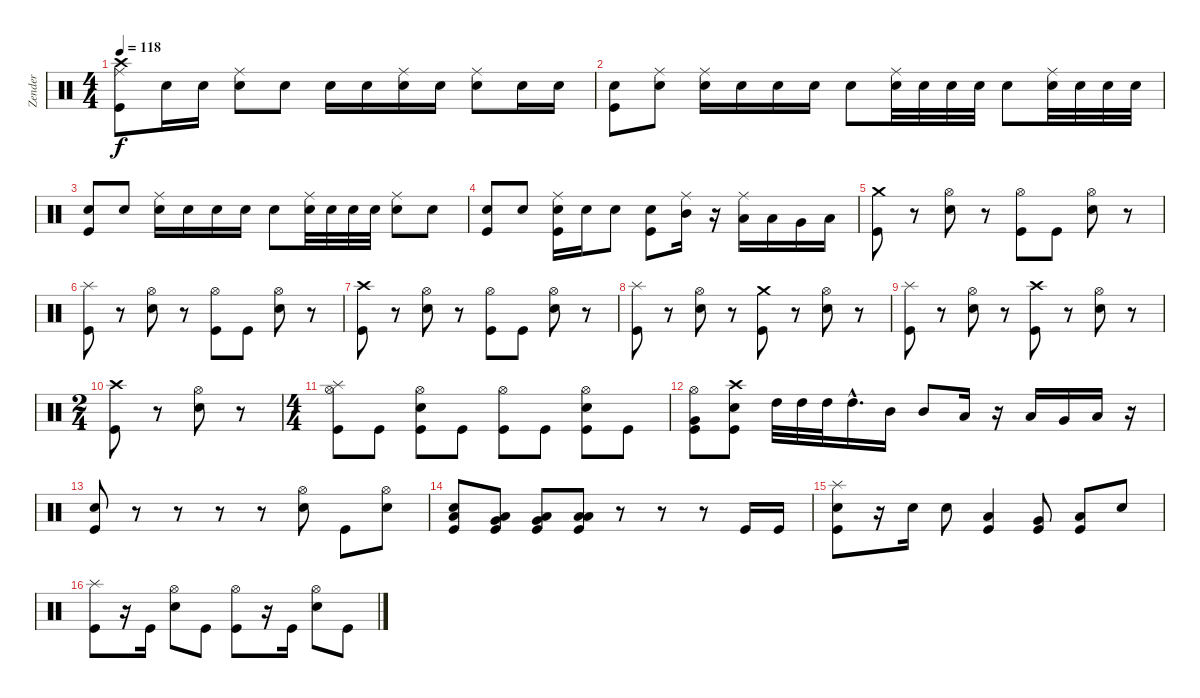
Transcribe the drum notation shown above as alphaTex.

\track ("Zender" "Zender") {instrument percussion}
\staff {score}
\articulation defaults
\ts (4 4)
\tempo 118
\clef neutral
\ks c
("Crash high (hit)" "Ride (middle)" "Kick (hit)").8{dy f} "Snare (hit) 2".16 "Snare (hit) 2".16 ("Ride (middle)" "Snare (hit) 2").8 "Snare (hit) 2".8 "Snare (hit) 2".16 "Snare (hit) 2".16 ("Ride (middle)" "Snare (hit) 2").16 "Snare (hit) 2".16 ("Ride (middle)" "Snare (hit) 2").8 "Snare (hit) 2".16 "Snare (hit) 2".16 |
("Snare (hit) 2" "Kick (hit)").8 ("Ride (middle)" "Snare (hit) 2").8 ("Ride (middle)" "Snare (hit) 2").16 "Snare (hit) 2".16 "Snare (hit) 2".16 "Snare (hit) 2".16 "Snare (hit) 2".8 ("Ride (middle)" "Snare (hit) 2").32 "Snare (hit) 2".32 "Snare (hit) 2".32 "Snare (hit) 2".32 "Snare (hit) 2".8 ("Ride (middle)" "Snare (hit) 2").32 "Snare (hit) 2".32 "Snare (hit) 2".32 "Snare (hit) 2".32 |
("Snare (hit) 2" "Kick (hit)").8 "Snare (hit) 2".8 ("Ride (middle)" "Snare (hit) 2").16 "Snare (hit) 2".16 "Snare (hit) 2".16 "Snare (hit) 2".16 "Snare (hit) 2".8 ("Ride (middle)" "Snare (hit) 2").32 "Snare (hit) 2".32 "Snare (hit) 2".32 "Snare (hit) 2".32 ("Ride (middle)" "Snare (hit) 2").8 "Snare (hit) 2".8 |
("Snare (hit) 2" "Kick (hit)").8 "Snare (hit) 2".8 ("Ride (middle)" "Snare (hit) 2" "Kick (hit)").16 "Snare (hit) 2".16 "Snare (hit) 2".8 ("Snare (hit) 2" "Kick (hit)").8 ("Ride (middle)" "Mid Tom (hit)").16 r.16 ("Ride (middle)" "Low Tom (hit)").16 "Low Tom (hit)".16 "Very Low Tom (hit)".16 "Low Floor Tom (hit)".16 |
("Crash medium (hit)" "Kick (hit)").8 r.8 ("Hi-Hat (open)" "Snare (hit) 2").8 r.8 ("Hi-Hat (open)" "Kick (hit)").8 "Kick (hit)".8 ("Hi-Hat (open)" "Snare (hit) 2").8 r.8 |
("Splash (hit)" "Kick (hit)").8 r.8 ("Hi-Hat (open)" "Snare (hit) 2").8 r.8 ("Hi-Hat (open)" "Kick (hit)").8 "Kick (hit)".8 ("Hi-Hat (open)" "Snare (hit) 2").8 r.8 |
("Crash high (hit)" "Kick (hit)").8 r.8 ("Hi-Hat (open)" "Snare (hit) 2").8 r.8 ("Hi-Hat (open)" "Kick (hit)").8 "Kick (hit)".8 ("Hi-Hat (open)" "Snare (hit) 2").8 r.8 |
("Splash (hit)" "Kick (hit)").8 r.8 ("Hi-Hat (open)" "Snare (hit) 2").8 r.8 ("Crash medium (hit)" "Kick (hit)").8 r.8 ("Hi-Hat (open)" "Snare (hit) 2").8 r.8 |
("Splash (hit)" "Kick (hit)").8 r.8 ("Hi-Hat (open)" "Snare (hit) 2").8 r.8 ("Crash high (hit)" "Kick (hit)").8 r.8 ("Hi-Hat (open)" "Snare (hit) 2").8 r.8 |
\ts (2 4)
("Crash high (hit)" "Kick (hit)").8 r.8 ("Hi-Hat (open)" "Snare (hit) 2").8 r.8 |
\ts (4 4)
("Splash (hit)" "Hi-Hat (open)" "Kick (hit)").8 "Kick (hit)".8 ("Hi-Hat (open)" "Snare (hit) 2" "Kick (hit)").8 "Kick (hit)".8 ("Hi-Hat (open)" "Kick (hit)").8 "Kick (hit)".8 ("Hi-Hat (open)" "Snare (hit) 2" "Kick (hit)").8 "Kick (hit)".8 |
("Hi-Hat (open)" "Very Low Tom (hit)" "Kick (hit)").8 ("Crash high (hit)" "Snare (hit) 2" "Kick (hit)").8 "High Tom (hit)".32 "High Tom (hit)".32 "High Tom (hit)".32 "High Tom (hit)"{hac}.16{d} "Mid Tom (hit)".16 "Mid Tom (hit)".8 "Low Tom (hit)".16 r.16 "Low Tom (hit)".16 "Very Low Tom (hit)".16 "Low Floor Tom (hit)".16 r.16 |
("Snare (hit) 2" "Kick (hit)").8 r.8 r.8 r.8 r.8 ("Hi-Hat (open)" "Snare (hit) 2").8 "Kick (hit)".8 ("Hi-Hat (open)" "Snare (hit) 2").8 |
("Low Tom (hit)" "Snare (hit) 2" "Kick (hit)").8 ("Low Tom (hit)" "Very Low Tom (hit)" "Kick (hit)").8 ("Very Low Tom (hit)" "Low Floor Tom (hit)" "Kick (hit)").8 ("Low Floor Tom (hit)" "Low Floor Tom (hit)" "Kick (hit)").8 r.8 r.8 r.8 "Kick (hit)".16 "Kick (hit)".16 |
("Splash (hit)" "Snare (hit) 2" "Kick (hit)").8 r.16 "Snare (hit) 2".16 "Snare (hit) 2".8 ("Low Tom (hit)" "Kick (hit)").4 ("Very Low Tom (hit)" "Kick (hit)").8 ("Low Floor Tom (hit)" "Kick (hit)").8 "Snare (hit) 2".8 |
("Splash (hit)" "Kick (hit)").8 r.16 "Kick (hit)".16 ("Hi-Hat (open)" "Snare (hit) 2").8 "Kick (hit)".8 ("Hi-Hat (open)" "Kick (hit)").8 r.16 "Kick (hit)".16 ("Hi-Hat (open)" "Snare (hit) 2").8 "Kick (hit)".8
